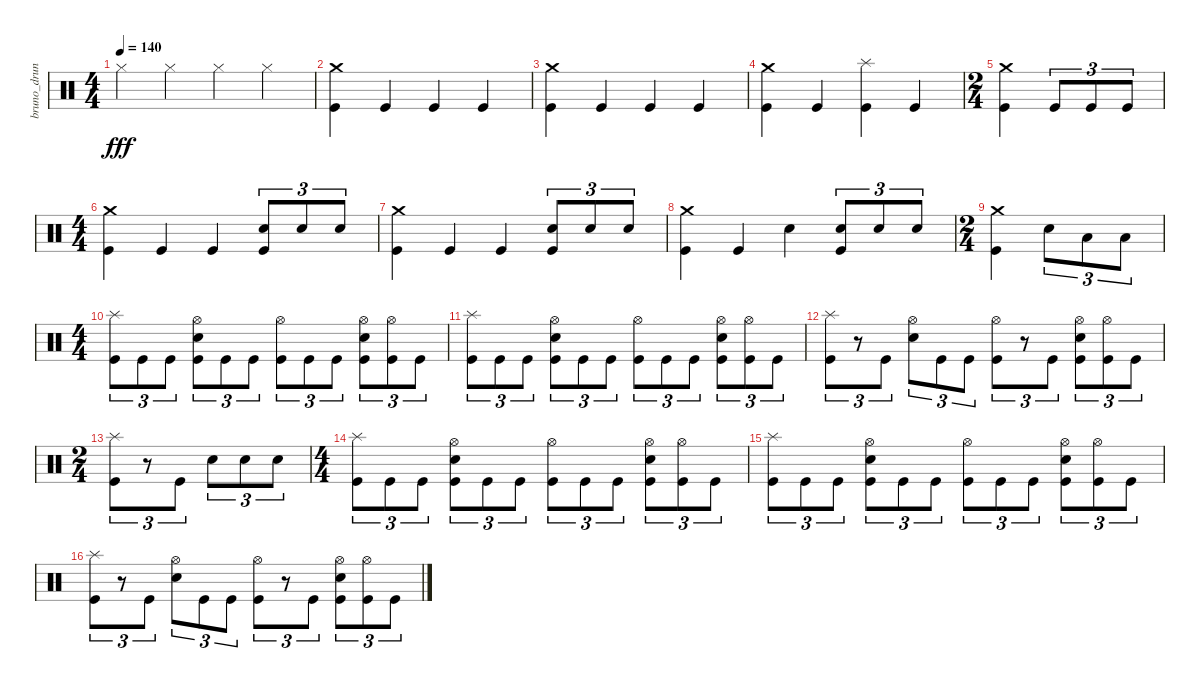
\track ("bruno_druns" "bruno_drun") {instrument percussion}
\staff {score}
\articulation defaults
\ts (4 4)
\tempo 140
\clef neutral
\ks c "Hi-Hat (closed)".4{dy fff} "Hi-Hat (closed)".4 "Hi-Hat (closed)".4 "Hi-Hat (closed)".4
|
("Kick (hit)" "Crash medium (hit)").4 "Kick (hit)".4 "Kick (hit)".4 "Kick (hit)".4 |
("Kick (hit)" "Crash medium (hit)").4 "Kick (hit)".4 "Kick (hit)".4 "Kick (hit)".4 |
("Kick (hit)" "Crash medium (hit)").4 "Kick (hit)".4 ("Kick (hit)" "Splash (hit)").4 "Kick (hit)".4 |
\ts (2 4)
("Kick (hit)" "Crash medium (hit)").4 "Kick (hit)".8{tu (3 2)} "Kick (hit)".8{tu (3 2)} "Kick (hit)".8{tu (3 2)} |
\ts (4 4)
("Kick (hit)" "Crash medium (hit)").4 "Kick (hit)".4 "Kick (hit)".4 ("Kick (hit)" "Electric Snare (hit)").8{tu (3 2)} "Electric Snare (hit)".8{tu (3 2)} "Electric Snare (hit)".8{tu (3 2)} |
("Kick (hit)" "Crash medium (hit)").4 "Kick (hit)".4 "Kick (hit)".4 ("Kick (hit)" "Electric Snare (hit)").8{tu (3 2)} "Electric Snare (hit)".8{tu (3 2)} "Electric Snare (hit)".8{tu (3 2)} |
("Kick (hit)" "Crash medium (hit)").4 "Kick (hit)".4 "Electric Snare (hit)".4 ("Kick (hit)" "Electric Snare (hit)").8{tu (3 2)} "Electric Snare (hit)".8{tu (3 2)} "Electric Snare (hit)".8{tu (3 2)} |
\ts (2 4)
("Kick (hit)" "Crash medium (hit)").4 "Electric Snare (hit)".8{tu (3 2)} "Low Tom (hit)".8{tu (3 2)} "Low Tom (hit)".8{tu (3 2)} |
\ts (4 4)
("Kick (hit)" "Splash (hit)").8{tu (3 2)} "Kick (hit)".8{tu (3 2)} "Kick (hit)".8{tu (3 2)} ("Kick (hit)" "Electric Snare (hit)" "Hi-Hat (open)").8{tu (3 2)} "Kick (hit)".8{tu (3 2)} "Kick (hit)".8{tu (3 2)} ("Kick (hit)" "Hi-Hat (open)").8{tu (3 2)} "Kick (hit)".8{tu (3 2)} "Kick (hit)".8{tu (3 2)} ("Kick (hit)" "Electric Snare (hit)" "Hi-Hat (open)").8{tu (3 2)} ("Kick (hit)" "Hi-Hat (open)").8{tu (3 2)} "Kick (hit)".8{tu (3 2)} |
("Kick (hit)" "Splash (hit)").8{tu (3 2)} "Kick (hit)".8{tu (3 2)} "Kick (hit)".8{tu (3 2)} ("Kick (hit)" "Electric Snare (hit)" "Hi-Hat (open)").8{tu (3 2)} "Kick (hit)".8{tu (3 2)} "Kick (hit)".8{tu (3 2)} ("Kick (hit)" "Hi-Hat (open)").8{tu (3 2)} "Kick (hit)".8{tu (3 2)} "Kick (hit)".8{tu (3 2)} ("Kick (hit)" "Electric Snare (hit)" "Hi-Hat (open)").8{tu (3 2)} ("Kick (hit)" "Hi-Hat (open)").8{tu (3 2)} "Kick (hit)".8{tu (3 2)} |
("Kick (hit)" "Splash (hit)").8{tu (3 2)} r.8{tu (3 2)} "Kick (hit)".8{tu (3 2)} ("Electric Snare (hit)" "Hi-Hat (open)").8{tu (3 2)} "Kick (hit)".8{tu (3 2)} "Kick (hit)".8{tu (3 2)} ("Kick (hit)" "Hi-Hat (open)").8{tu (3 2)} r.8{tu (3 2)} "Kick (hit)".8{tu (3 2)} ("Kick (hit)" "Electric Snare (hit)" "Hi-Hat (open)").8{tu (3 2)} ("Kick (hit)" "Hi-Hat (open)").8{tu (3 2)} "Kick (hit)".8{tu (3 2)} |
\ts (2 4)
("Kick (hit)" "Splash (hit)").8{tu (3 2)} r.8{tu (3 2)} "Kick (hit)".8{tu (3 2)} "Electric Snare (hit)".8{tu (3 2)} "Electric Snare (hit)".8{tu (3 2)} "Electric Snare (hit)".8{tu (3 2)} |
\ts (4 4)
("Kick (hit)" "Splash (hit)").8{tu (3 2)} "Kick (hit)".8{tu (3 2)} "Kick (hit)".8{tu (3 2)} ("Kick (hit)" "Electric Snare (hit)" "Hi-Hat (open)").8{tu (3 2)} "Kick (hit)".8{tu (3 2)} "Kick (hit)".8{tu (3 2)} ("Kick (hit)" "Hi-Hat (open)").8{tu (3 2)} "Kick (hit)".8{tu (3 2)} "Kick (hit)".8{tu (3 2)} ("Kick (hit)" "Electric Snare (hit)" "Hi-Hat (open)").8{tu (3 2)} ("Kick (hit)" "Hi-Hat (open)").8{tu (3 2)} "Kick (hit)".8{tu (3 2)} |
("Kick (hit)" "Splash (hit)").8{tu (3 2)} "Kick (hit)".8{tu (3 2)} "Kick (hit)".8{tu (3 2)} ("Kick (hit)" "Electric Snare (hit)" "Hi-Hat (open)").8{tu (3 2)} "Kick (hit)".8{tu (3 2)} "Kick (hit)".8{tu (3 2)} ("Kick (hit)" "Hi-Hat (open)").8{tu (3 2)} "Kick (hit)".8{tu (3 2)} "Kick (hit)".8{tu (3 2)} ("Kick (hit)" "Electric Snare (hit)" "Hi-Hat (open)").8{tu (3 2)} ("Kick (hit)" "Hi-Hat (open)").8{tu (3 2)} "Kick (hit)".8{tu (3 2)} |
("Kick (hit)" "Splash (hit)").8{tu (3 2)} r.8{tu (3 2)} "Kick (hit)".8{tu (3 2)} ("Electric Snare (hit)" "Hi-Hat (open)").8{tu (3 2)} "Kick (hit)".8{tu (3 2)} "Kick (hit)".8{tu (3 2)} ("Kick (hit)" "Hi-Hat (open)").8{tu (3 2)} r.8{tu (3 2)} "Kick (hit)".8{tu (3 2)} ("Kick (hit)" "Electric Snare (hit)" "Hi-Hat (open)").8{tu (3 2)} ("Kick (hit)" "Hi-Hat (open)").8{tu (3 2)} "Kick (hit)".8{tu (3 2)}
